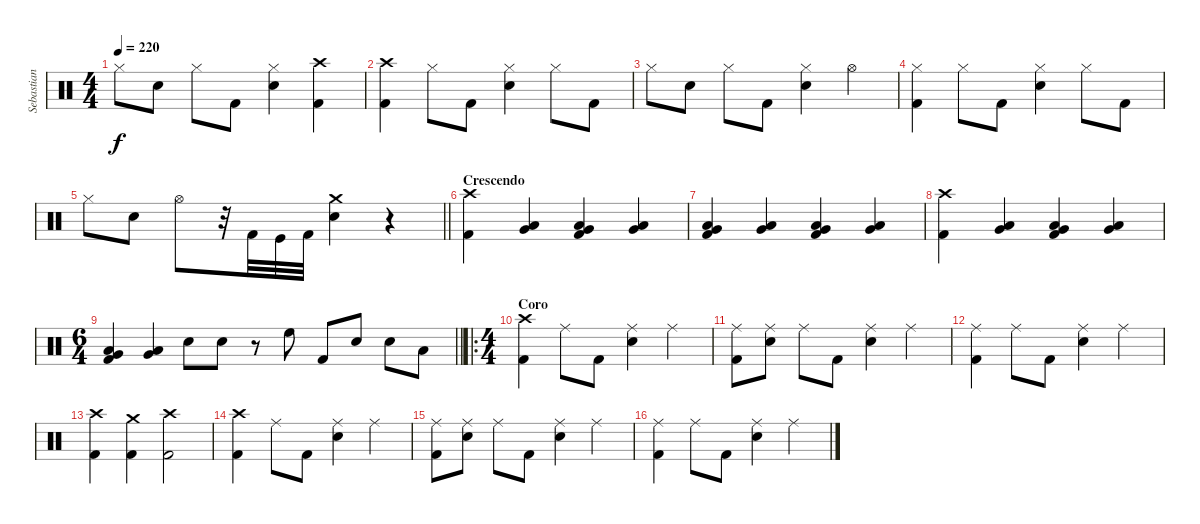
\track ("Sebastian" "Sebastian") {instrument percussion}
\staff {score}
\articulation defaults
\ts (4 4)
\tempo 220
\clef neutral
\ks c "Hi-Hat (closed)".8{dy f} "Snare (hit) 2".8 "Hi-Hat (closed)".8 "Kick (hit) 2".8
("Hi-Hat (closed)" "Snare (hit) 2").4 ("Crash high (hit)" "Kick (hit) 2").4 |
("Crash high (hit)" "Kick (hit) 2").4 "Hi-Hat (closed)".8 "Kick (hit) 2".8 ("Hi-Hat (closed)" "Snare (hit) 2").4 "Hi-Hat (closed)".8 "Kick (hit) 2".8 |
"Hi-Hat (closed)".8 "Snare (hit) 2".8 "Hi-Hat (closed)".8 "Kick (hit) 2".8 ("Hi-Hat (closed)" "Snare (hit) 2").4 "Hi-Hat (open)".4 |
("Hi-Hat (closed)" "Kick (hit) 2").4 "Hi-Hat (closed)".8 "Kick (hit) 2".8 ("Hi-Hat (closed)" "Snare (hit) 2").4 "Hi-Hat (closed)".8 "Kick (hit) 2".8 |
\barLineRight lightlight "Hi-Hat (closed)".8 "Snare (hit) 2".8 "Hi-Hat (open)".8
r.32 "Kick (hit) 2".32 "Kick (hit)".32 "Kick (hit) 2".32 ("Crash medium (hit)" "Snare (hit) 2").4 r.4 |
\section ("" "Crescendo")
("Crash high (hit)" "Kick (hit) 2").4 ("Low Tom (hit)" "Very Low Tom (hit)").4 ("Low Tom (hit)" "Very Low Tom (hit)" "Kick (hit) 2").4 ("Low Tom (hit)" "Very Low Tom (hit)").4 |
("Low Tom (hit)" "Very Low Tom (hit)" "Kick (hit) 2").4 ("Low Tom (hit)" "Very Low Tom (hit)").4 ("Low Tom (hit)" "Very Low Tom (hit)" "Kick (hit) 2").4 ("Low Tom (hit)" "Very Low Tom (hit)").4 |
("Crash high (hit)" "Kick (hit) 2").4 ("Low Tom (hit)" "Very Low Tom (hit)").4 ("Low Tom (hit)" "Very Low Tom (hit)" "Kick (hit) 2").4 ("Low Tom (hit)" "Very Low Tom (hit)").4 |
\ts (6 4)
\barLineRight lightlight
("Low Tom (hit)" "Very Low Tom (hit)" "Kick (hit) 2").4 ("Low Tom (hit)" "Very Low Tom (hit)").4 "Snare (hit) 2".8 "Snare (hit) 2".8 r.8 "High Floor Tom (hit)".8 "Kick (hit) 2".8 "Snare (hit) 2".8 "Snare (hit) 2".8 "Low Tom (hit)".8 |
\ro
\ts (4 4)
\section ("" "Coro")
("Crash high (hit)" "Kick (hit) 2").4 "Ride (middle)".8 "Kick (hit) 2".8 ("Ride (middle)" "Snare (hit) 2").4 "Ride (middle)".4 |
("Ride (middle)" "Kick (hit) 2").8 ("Ride (middle)" "Snare (hit) 2").8 "Ride (middle)".8 "Kick (hit) 2".8 ("Ride (middle)" "Snare (hit) 2").4 "Ride (middle)".4 |
("Ride (middle)" "Kick (hit) 2").4 "Ride (middle)".8 "Kick (hit) 2".8 ("Ride (middle)" "Snare (hit) 2").4 "Ride (middle)".4 |
("Crash high (hit)" "Kick (hit) 2").4 ("Crash medium (hit)" "Kick (hit) 2").4 ("Crash high (hit)" "Kick (hit) 2").2 |
("Crash high (hit)" "Kick (hit) 2").4 "Ride (middle)".8 "Kick (hit) 2".8 ("Ride (middle)" "Snare (hit) 2").4 "Ride (middle)".4 |
("Ride (middle)" "Kick (hit) 2").8 ("Ride (middle)" "Snare (hit) 2").8 "Ride (middle)".8 "Kick (hit) 2".8 ("Ride (middle)" "Snare (hit) 2").4 "Ride (middle)".4 |
("Ride (middle)" "Kick (hit) 2").4 "Ride (middle)".8 "Kick (hit) 2".8 ("Ride (middle)" "Snare (hit) 2").4 "Ride (middle)".4
